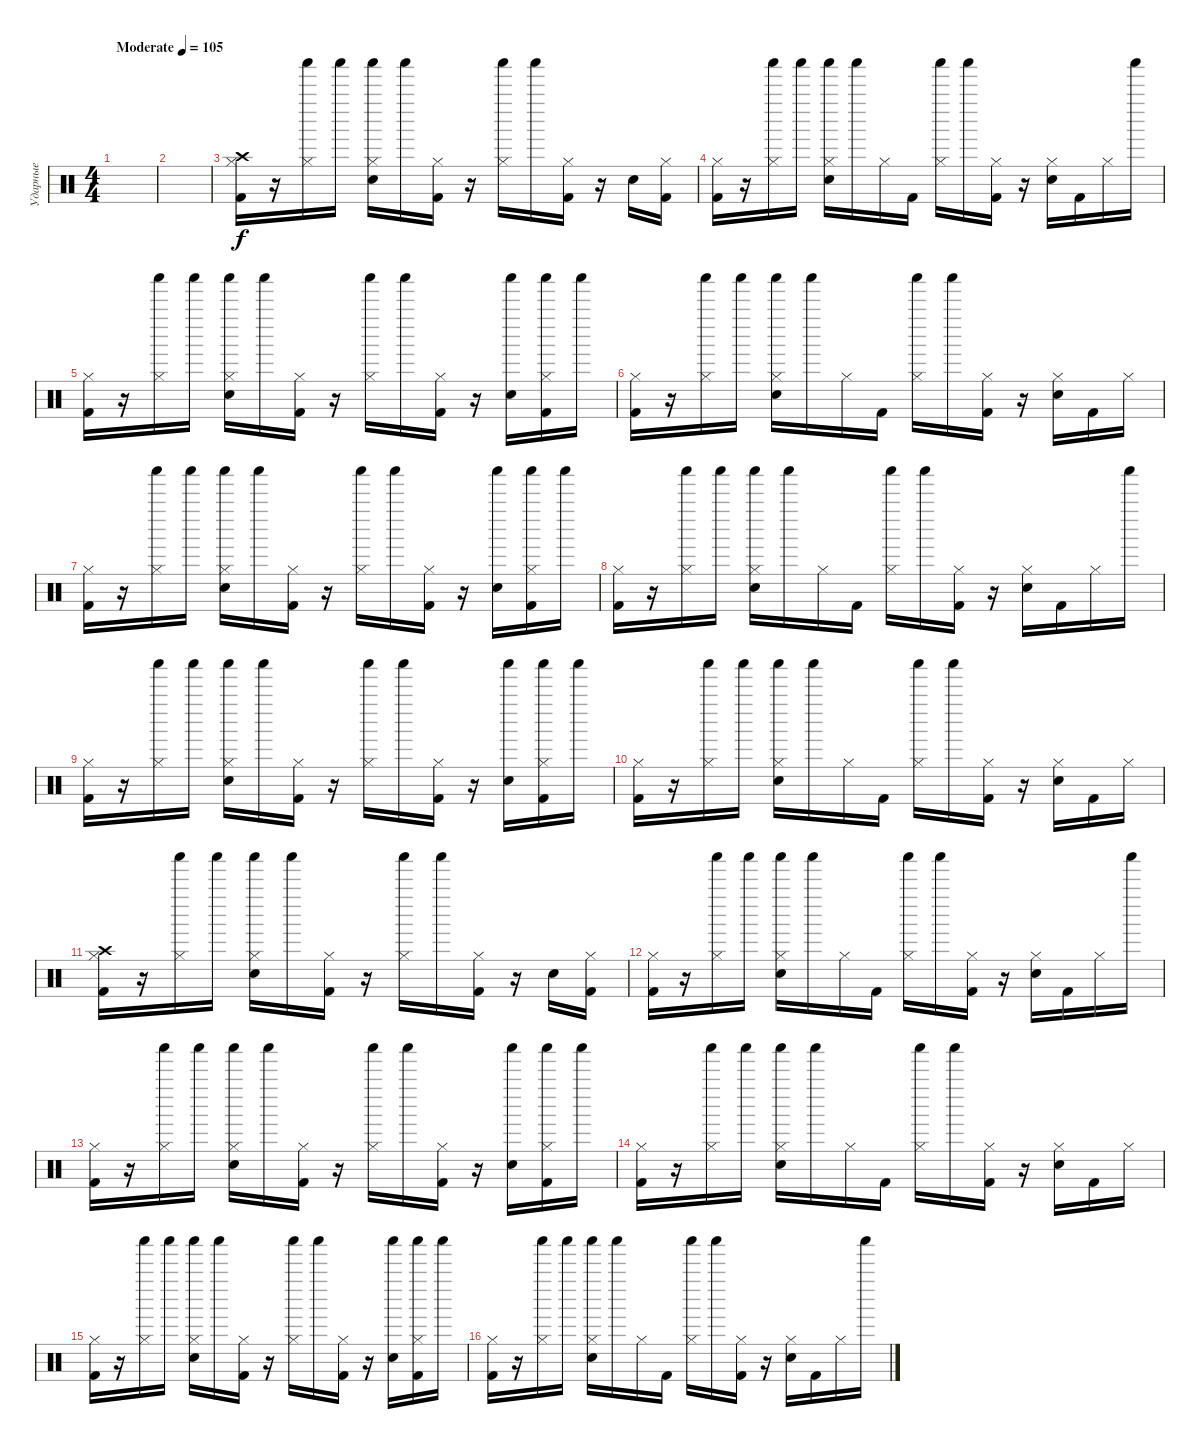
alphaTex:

\track ("Ударные" "Ударные") {solo instrument percussion}
\staff {score}
\articulation defaults
\ts (4 4)
\tempo (105 "Moderate")
\clef neutral
\ks c
|
|
("Kick (hit) 2" "Hi-Hat (closed)" "Crash high (hit)").16 r.16 ("Shaker (hit)" "Hi-Hat (closed)").16 "Shaker (hit)".16 ("Hand Clap (hit)" "Shaker (hit)" "Hi-Hat (closed)").16 "Shaker (hit)".16 ("Kick (hit) 2" "Hi-Hat (closed)").16 r.16 ("Shaker (hit)" "Hi-Hat (closed)").16 "Shaker (hit)".16 ("Kick (hit) 2" "Hi-Hat (closed)").16 r.16 "Hand Clap (hit)".16 ("Kick (hit) 2" "Hi-Hat (closed)").16 |
("Kick (hit) 2" "Hi-Hat (closed)").16 r.16 ("Shaker (hit)" "Hi-Hat (closed)").16 "Shaker (hit)".16 ("Hand Clap (hit)" "Shaker (hit)" "Hi-Hat (closed)").16 "Shaker (hit)".16 "Hi-Hat (closed)".16 "Kick (hit) 2".16 ("Shaker (hit)" "Hi-Hat (closed)").16 "Shaker (hit)".16 ("Kick (hit) 2" "Hi-Hat (closed)").16 r.16 ("Hand Clap (hit)" "Hi-Hat (closed)").16 "Kick (hit) 2".16 "Hi-Hat (closed)".16 "Shaker (hit)".16 |
("Kick (hit) 2" "Hi-Hat (closed)").16 r.16 ("Shaker (hit)" "Hi-Hat (closed)").16 "Shaker (hit)".16 ("Hand Clap (hit)" "Shaker (hit)" "Hi-Hat (closed)").16 "Shaker (hit)".16 ("Kick (hit) 2" "Hi-Hat (closed)").16 r.16 ("Shaker (hit)" "Hi-Hat (closed)").16 "Shaker (hit)".16 ("Kick (hit) 2" "Hi-Hat (closed)").16 r.16 ("Hand Clap (hit)" "Shaker (hit)").16 ("Kick (hit) 2" "Shaker (hit)" "Hi-Hat (closed)").16 "Shaker (hit)".16 |
("Kick (hit) 2" "Hi-Hat (closed)").16 r.16 ("Shaker (hit)" "Hi-Hat (closed)").16 "Shaker (hit)".16 ("Hand Clap (hit)" "Shaker (hit)" "Hi-Hat (closed)").16 "Shaker (hit)".16 "Hi-Hat (closed)".16 "Kick (hit) 2".16 ("Shaker (hit)" "Hi-Hat (closed)").16 "Shaker (hit)".16 ("Kick (hit) 2" "Hi-Hat (closed)").16 r.16 ("Hand Clap (hit)" "Hi-Hat (closed)").16 "Kick (hit) 2".16 "Hi-Hat (closed)".16 |
("Kick (hit) 2" "Hi-Hat (closed)").16 r.16 ("Shaker (hit)" "Hi-Hat (closed)").16 "Shaker (hit)".16 ("Hand Clap (hit)" "Shaker (hit)" "Hi-Hat (closed)").16 "Shaker (hit)".16 ("Kick (hit) 2" "Hi-Hat (closed)").16 r.16 ("Shaker (hit)" "Hi-Hat (closed)").16 "Shaker (hit)".16 ("Kick (hit) 2" "Hi-Hat (closed)").16 r.16 ("Hand Clap (hit)" "Shaker (hit)").16 ("Kick (hit) 2" "Shaker (hit)" "Hi-Hat (closed)").16 "Shaker (hit)".16 |
("Kick (hit) 2" "Hi-Hat (closed)").16 r.16 ("Shaker (hit)" "Hi-Hat (closed)").16 "Shaker (hit)".16 ("Hand Clap (hit)" "Shaker (hit)" "Hi-Hat (closed)").16 "Shaker (hit)".16 "Hi-Hat (closed)".16 "Kick (hit) 2".16 ("Shaker (hit)" "Hi-Hat (closed)").16 "Shaker (hit)".16 ("Kick (hit) 2" "Hi-Hat (closed)").16 r.16 ("Hand Clap (hit)" "Hi-Hat (closed)").16 "Kick (hit) 2".16 "Hi-Hat (closed)".16 "Shaker (hit)".16 |
("Kick (hit) 2" "Hi-Hat (closed)").16 r.16 ("Shaker (hit)" "Hi-Hat (closed)").16 "Shaker (hit)".16 ("Hand Clap (hit)" "Shaker (hit)" "Hi-Hat (closed)").16 "Shaker (hit)".16 ("Kick (hit) 2" "Hi-Hat (closed)").16 r.16 ("Shaker (hit)" "Hi-Hat (closed)").16 "Shaker (hit)".16 ("Kick (hit) 2" "Hi-Hat (closed)").16 r.16 ("Hand Clap (hit)" "Shaker (hit)").16 ("Kick (hit) 2" "Shaker (hit)" "Hi-Hat (closed)").16 "Shaker (hit)".16 |
("Kick (hit) 2" "Hi-Hat (closed)").16 r.16 ("Shaker (hit)" "Hi-Hat (closed)").16 "Shaker (hit)".16 ("Hand Clap (hit)" "Shaker (hit)" "Hi-Hat (closed)").16 "Shaker (hit)".16 "Hi-Hat (closed)".16 "Kick (hit) 2".16 ("Shaker (hit)" "Hi-Hat (closed)").16 "Shaker (hit)".16 ("Kick (hit) 2" "Hi-Hat (closed)").16 r.16 ("Hand Clap (hit)" "Hi-Hat (closed)").16 "Kick (hit) 2".16 "Hi-Hat (closed)".16 |
("Kick (hit) 2" "Hi-Hat (closed)" "Crash high (hit)").16 r.16 ("Shaker (hit)" "Hi-Hat (closed)").16 "Shaker (hit)".16 ("Hand Clap (hit)" "Shaker (hit)" "Hi-Hat (closed)").16 "Shaker (hit)".16 ("Kick (hit) 2" "Hi-Hat (closed)").16 r.16 ("Shaker (hit)" "Hi-Hat (closed)").16 "Shaker (hit)".16 ("Kick (hit) 2" "Hi-Hat (closed)").16 r.16 "Hand Clap (hit)".16 ("Kick (hit) 2" "Hi-Hat (closed)").16 |
("Kick (hit) 2" "Hi-Hat (closed)").16 r.16 ("Shaker (hit)" "Hi-Hat (closed)").16 "Shaker (hit)".16 ("Hand Clap (hit)" "Shaker (hit)" "Hi-Hat (closed)").16 "Shaker (hit)".16 "Hi-Hat (closed)".16 "Kick (hit) 2".16 ("Shaker (hit)" "Hi-Hat (closed)").16 "Shaker (hit)".16 ("Kick (hit) 2" "Hi-Hat (closed)").16 r.16 ("Hand Clap (hit)" "Hi-Hat (closed)").16 "Kick (hit) 2".16 "Hi-Hat (closed)".16 "Shaker (hit)".16 |
("Kick (hit) 2" "Hi-Hat (closed)").16 r.16 ("Shaker (hit)" "Hi-Hat (closed)").16 "Shaker (hit)".16 ("Hand Clap (hit)" "Shaker (hit)" "Hi-Hat (closed)").16 "Shaker (hit)".16 ("Kick (hit) 2" "Hi-Hat (closed)").16 r.16 ("Shaker (hit)" "Hi-Hat (closed)").16 "Shaker (hit)".16 ("Kick (hit) 2" "Hi-Hat (closed)").16 r.16 ("Hand Clap (hit)" "Shaker (hit)").16 ("Kick (hit) 2" "Shaker (hit)" "Hi-Hat (closed)").16 "Shaker (hit)".16 |
("Kick (hit) 2" "Hi-Hat (closed)").16 r.16 ("Shaker (hit)" "Hi-Hat (closed)").16 "Shaker (hit)".16 ("Hand Clap (hit)" "Shaker (hit)" "Hi-Hat (closed)").16 "Shaker (hit)".16 "Hi-Hat (closed)".16 "Kick (hit) 2".16 ("Shaker (hit)" "Hi-Hat (closed)").16 "Shaker (hit)".16 ("Kick (hit) 2" "Hi-Hat (closed)").16 r.16 ("Hand Clap (hit)" "Hi-Hat (closed)").16 "Kick (hit) 2".16 "Hi-Hat (closed)".16 |
("Kick (hit) 2" "Hi-Hat (closed)").16 r.16 ("Shaker (hit)" "Hi-Hat (closed)").16 "Shaker (hit)".16 ("Hand Clap (hit)" "Shaker (hit)" "Hi-Hat (closed)").16 "Shaker (hit)".16 ("Kick (hit) 2" "Hi-Hat (closed)").16 r.16 ("Shaker (hit)" "Hi-Hat (closed)").16 "Shaker (hit)".16 ("Kick (hit) 2" "Hi-Hat (closed)").16 r.16 ("Hand Clap (hit)" "Shaker (hit)").16 ("Kick (hit) 2" "Shaker (hit)" "Hi-Hat (closed)").16 "Shaker (hit)".16 |
("Kick (hit) 2" "Hi-Hat (closed)").16 r.16 ("Shaker (hit)" "Hi-Hat (closed)").16 "Shaker (hit)".16 ("Hand Clap (hit)" "Shaker (hit)" "Hi-Hat (closed)").16 "Shaker (hit)".16 "Hi-Hat (closed)".16 "Kick (hit) 2".16 ("Shaker (hit)" "Hi-Hat (closed)").16 "Shaker (hit)".16 ("Kick (hit) 2" "Hi-Hat (closed)").16 r.16 ("Hand Clap (hit)" "Hi-Hat (closed)").16 "Kick (hit) 2".16 "Hi-Hat (closed)".16 "Shaker (hit)".16
